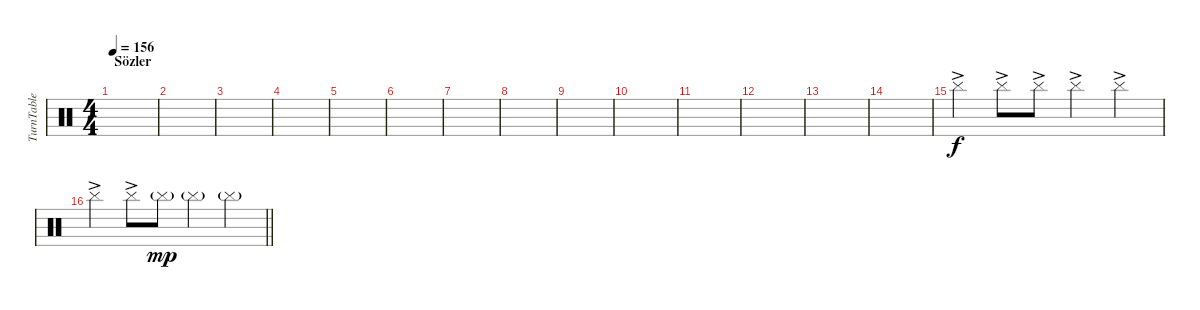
\track ("TurnTable" "TurnTable") {instrument percussion}
\staff {score}
\articulation defaults
\ts (4 4)
\section ("" "Sözler")
\tempo 156
\clef neutral
\ks c
|
|
|
|
|
|
|
|
|
|
|
|
|
|
"Cymbal (hit)"{ac}.4 "Cymbal (hit)"{ac}.8 "Cymbal (hit)"{ac}.8 "Cymbal (hit)"{ac}.4 "Cymbal (hit)"{ac}.4 |
\barLineRight lightlight "Cymbal (hit)"{ac}.4 "Cymbal (hit)"{ac}.8 "Cymbal (hit)"{g}.8{dy mp} "Cymbal (hit)"{g}.4 "Cymbal (hit)"{g}.4
